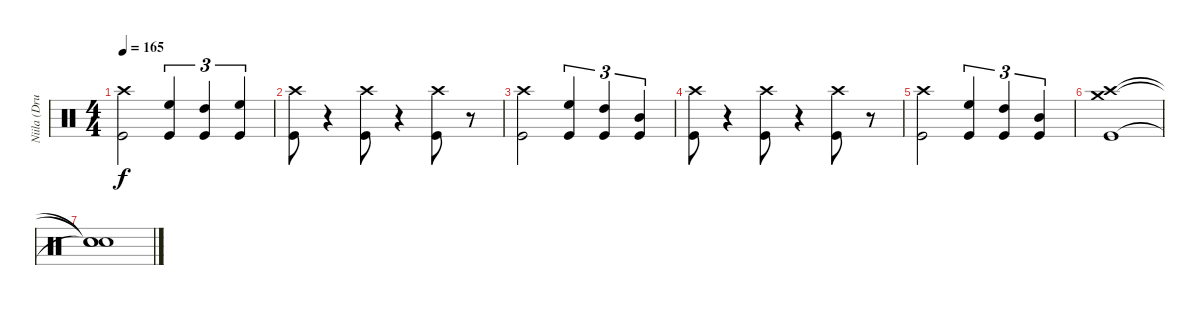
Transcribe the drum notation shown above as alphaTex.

\track ("Niila (Drums)" "Niila (Dru") {instrument percussion}
\staff {score}
\articulation defaults
\ts (4 4)
\tempo 165
\clef neutral
\ks c
("Crash high (hit)" "Kick (hit)").2{dy f} ("High Floor Tom (hit)" "Kick (hit)").4{tu (3 2)} ("High Tom (hit)" "Kick (hit)").4{tu (3 2)} ("High Floor Tom (hit)" "Kick (hit)").4{tu (3 2)} |
("Crash high (hit)" "Kick (hit)").8 r.4 ("Crash high (hit)" "Kick (hit)").8 r.4 ("Crash high (hit)" "Kick (hit)").8 r.8 |
("Crash high (hit)" "Kick (hit)").2 ("High Floor Tom (hit)" "Kick (hit)").4{tu (3 2)} ("High Tom (hit)" "Kick (hit)").4{tu (3 2)} ("Mid Tom (hit)" "Kick (hit)").4{tu (3 2)} |
("Crash high (hit)" "Kick (hit)").8 r.4 ("Crash high (hit)" "Kick (hit)").8 r.4 ("Crash high (hit)" "Kick (hit)").8 r.8 |
("Crash high (hit)" "Kick (hit)").2 ("High Floor Tom (hit)" "Kick (hit)").4{tu (3 2)} ("High Tom (hit)" "Kick (hit)").4{tu (3 2)} ("Mid Tom (hit)" "Kick (hit)").4{tu (3 2)} |
("Crash medium (hit)" "Crash high (hit)" "Kick (hit)").1 |
("Snare (hit)"{t} "Snare (hit)"{t} "Snare (hit)"{t}).1
